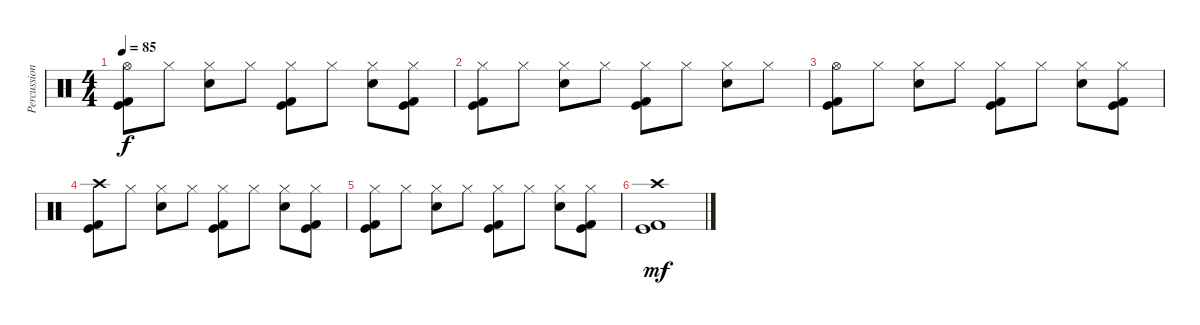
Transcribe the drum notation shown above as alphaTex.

\track ("Percussion" "Percussion") {instrument percussion}
\staff {score}
\articulation defaults
\ts (4 4)
\tempo 85
\clef neutral
\ks c
("Hi-Hat (open)" "Kick (hit)" "Kick (hit) 2").8{dy f} "Hi-Hat (closed)".8 ("Hi-Hat (closed)" "Snare (hit) 2").8 "Hi-Hat (closed)".8 ("Hi-Hat (closed)" "Kick (hit)" "Kick (hit) 2").8 "Hi-Hat (closed)".8 ("Hi-Hat (closed)" "Snare (hit) 2").8 ("Hi-Hat (closed)" "Kick (hit)" "Kick (hit) 2").8 |
("Hi-Hat (closed)" "Kick (hit)" "Kick (hit) 2").8 "Hi-Hat (closed)".8 ("Hi-Hat (closed)" "Snare (hit) 2").8 "Hi-Hat (closed)".8 ("Hi-Hat (closed)" "Kick (hit)" "Kick (hit) 2").8 "Hi-Hat (closed)".8 ("Hi-Hat (closed)" "Snare (hit) 2").8 "Hi-Hat (closed)".8 |
("Hi-Hat (open)" "Kick (hit)" "Kick (hit) 2").8 "Hi-Hat (closed)".8 ("Hi-Hat (closed)" "Snare (hit) 2").8 "Hi-Hat (closed)".8 ("Hi-Hat (closed)" "Kick (hit)" "Kick (hit) 2").8 "Hi-Hat (closed)".8 ("Hi-Hat (closed)" "Snare (hit) 2").8 ("Hi-Hat (closed)" "Kick (hit)" "Kick (hit) 2").8 |
("Crash high (hit)" "Kick (hit)" "Kick (hit) 2").8 "Hi-Hat (closed)".8 ("Hi-Hat (closed)" "Snare (hit) 2").8 "Hi-Hat (closed)".8 ("Hi-Hat (closed)" "Kick (hit)" "Kick (hit) 2").8 "Hi-Hat (closed)".8 ("Hi-Hat (closed)" "Snare (hit) 2").8 ("Hi-Hat (closed)" "Kick (hit)" "Kick (hit) 2").8 |
("Hi-Hat (closed)" "Kick (hit)" "Kick (hit) 2").8 "Hi-Hat (closed)".8 ("Hi-Hat (closed)" "Snare (hit) 2").8 "Hi-Hat (closed)".8 ("Hi-Hat (closed)" "Kick (hit)" "Kick (hit) 2").8 "Hi-Hat (closed)".8 ("Hi-Hat (closed)" "Snare (hit) 2").8 ("Hi-Hat (closed)" "Kick (hit)" "Kick (hit) 2").8 |
("Crash high (hit)" "Kick (hit)" "Kick (hit) 2").1{dy mf}
